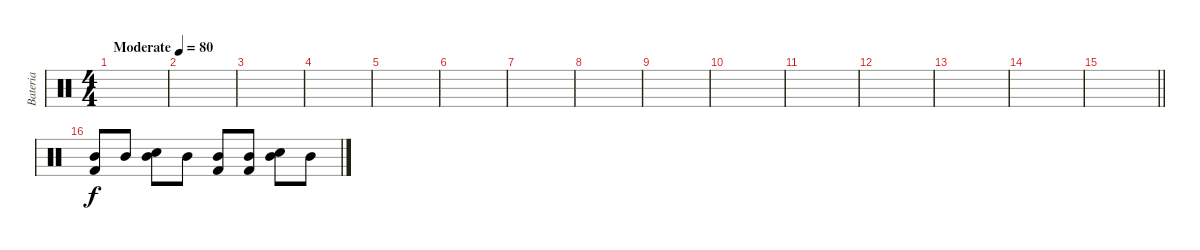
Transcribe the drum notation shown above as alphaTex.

\track ("Bateria" "Bateria") {instrument percussion}
\staff {score}
\articulation defaults
\ts (4 4)
\tempo (80 "Moderate")
\clef neutral
\ks c
|
|
|
|
|
|
|
|
|
|
|
|
|
|
\barLineRight lightlight
|
("Mid Tom (hit)" "Kick (hit) 2").8 "Mid Tom (hit)".8 ("Mid Tom (hit)" "Snare (hit) 2").8 "Mid Tom (hit)".8 ("Mid Tom (hit)" "Kick (hit) 2").8 ("Mid Tom (hit)" "Kick (hit) 2").8 ("Mid Tom (hit)" "Snare (hit) 2").8 "Mid Tom (hit)".8
